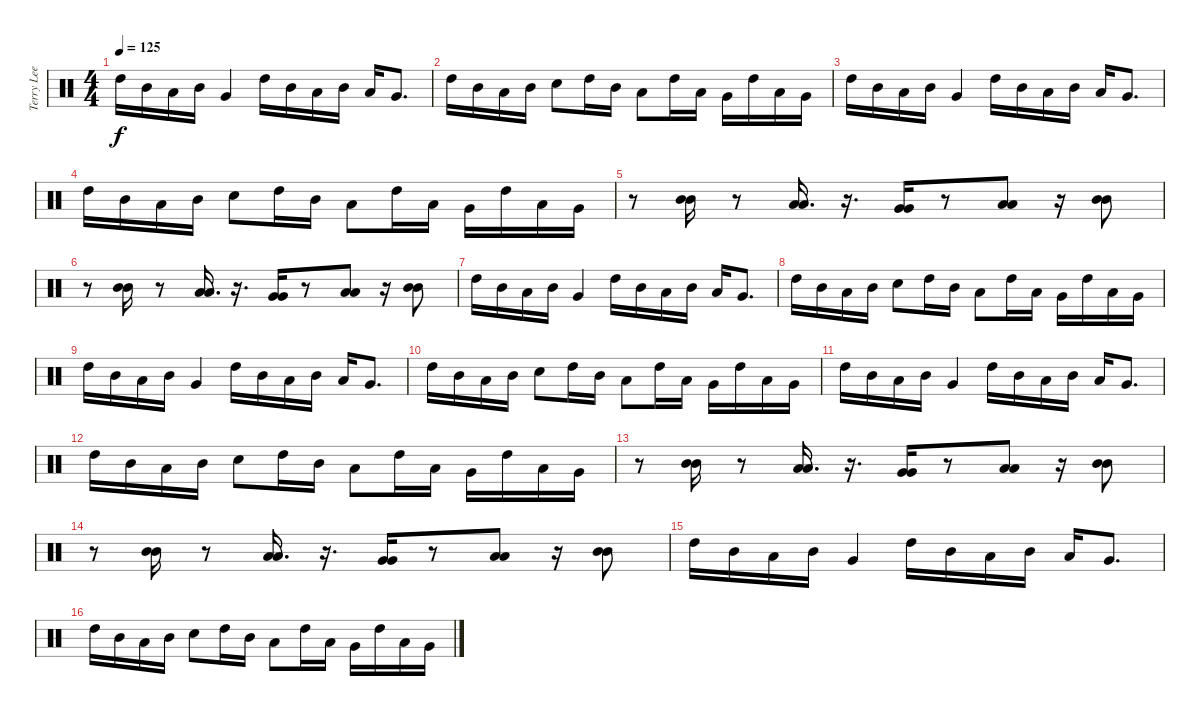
\track ("Terry Lee Miall" "Terry Lee ") {instrument percussion}
\staff {score}
\articulation defaults
\ts (4 4)
\tempo 125
\clef neutral
\ks c "High Tom (hit)".16{dy f} "Mid Tom (hit)".16 "Low Tom (hit)".16 "Mid Tom (hit)".16 "Very Low Tom (hit)".4 "High Tom (hit)".16 "Mid Tom (hit)".16 "Low Tom (hit)".16 "Mid Tom (hit)".16 "Low Tom (hit)".16 "Very Low Tom (hit)".8{d}
|
"High Tom (hit)".16 "Mid Tom (hit)".16 "Low Tom (hit)".16 "Mid Tom (hit)".16 "Electric Snare (hit)".8 "High Tom (hit)".16 "Mid Tom (hit)".16 "Low Tom (hit)".8 "High Tom (hit)".16 "Low Tom (hit)".16 "Very Low Tom (hit)".16 "High Tom (hit)".16 "Low Tom (hit)".16 "Very Low Tom (hit)".16 |
"High Tom (hit)".16 "Mid Tom (hit)".16 "Low Tom (hit)".16 "Mid Tom (hit)".16 "Very Low Tom (hit)".4 "High Tom (hit)".16 "Mid Tom (hit)".16 "Low Tom (hit)".16 "Mid Tom (hit)".16 "Low Tom (hit)".16 "Very Low Tom (hit)".8{d} |
"High Tom (hit)".16 "Mid Tom (hit)".16 "Low Tom (hit)".16 "Mid Tom (hit)".16 "Electric Snare (hit)".8 "High Tom (hit)".16 "Mid Tom (hit)".16 "Low Tom (hit)".8 "High Tom (hit)".16 "Low Tom (hit)".16 "Very Low Tom (hit)".16 "High Tom (hit)".16 "Low Tom (hit)".16 "Very Low Tom (hit)".16 |
r.8 ("Mid Tom (hit)" "Mid Tom (hit)").16 r.8 ("Low Tom (hit)" "Low Tom (hit)").16{d} r.16{d} ("Very Low Tom (hit)" "Very Low Tom (hit)").16 r.8 ("Low Tom (hit)" "Low Tom (hit)").8 r.16 ("Mid Tom (hit)" "Mid Tom (hit)").8 |
r.8 ("Mid Tom (hit)" "Mid Tom (hit)").16 r.8 ("Low Tom (hit)" "Low Tom (hit)").16{d} r.16{d} ("Very Low Tom (hit)" "Very Low Tom (hit)").16 r.8 ("Low Tom (hit)" "Low Tom (hit)").8 r.16 ("Mid Tom (hit)" "Mid Tom (hit)").8 |
"High Tom (hit)".16 "Mid Tom (hit)".16 "Low Tom (hit)".16 "Mid Tom (hit)".16 "Very Low Tom (hit)".4 "High Tom (hit)".16 "Mid Tom (hit)".16 "Low Tom (hit)".16 "Mid Tom (hit)".16 "Low Tom (hit)".16 "Very Low Tom (hit)".8{d} |
"High Tom (hit)".16 "Mid Tom (hit)".16 "Low Tom (hit)".16 "Mid Tom (hit)".16 "Electric Snare (hit)".8 "High Tom (hit)".16 "Mid Tom (hit)".16 "Low Tom (hit)".8 "High Tom (hit)".16 "Low Tom (hit)".16 "Very Low Tom (hit)".16 "High Tom (hit)".16 "Low Tom (hit)".16 "Very Low Tom (hit)".16 |
"High Tom (hit)".16 "Mid Tom (hit)".16 "Low Tom (hit)".16 "Mid Tom (hit)".16 "Very Low Tom (hit)".4 "High Tom (hit)".16 "Mid Tom (hit)".16 "Low Tom (hit)".16 "Mid Tom (hit)".16 "Low Tom (hit)".16 "Very Low Tom (hit)".8{d} |
"High Tom (hit)".16 "Mid Tom (hit)".16 "Low Tom (hit)".16 "Mid Tom (hit)".16 "Electric Snare (hit)".8 "High Tom (hit)".16 "Mid Tom (hit)".16 "Low Tom (hit)".8 "High Tom (hit)".16 "Low Tom (hit)".16 "Very Low Tom (hit)".16 "High Tom (hit)".16 "Low Tom (hit)".16 "Very Low Tom (hit)".16 |
"High Tom (hit)".16 "Mid Tom (hit)".16 "Low Tom (hit)".16 "Mid Tom (hit)".16 "Very Low Tom (hit)".4 "High Tom (hit)".16 "Mid Tom (hit)".16 "Low Tom (hit)".16 "Mid Tom (hit)".16 "Low Tom (hit)".16 "Very Low Tom (hit)".8{d} |
"High Tom (hit)".16 "Mid Tom (hit)".16 "Low Tom (hit)".16 "Mid Tom (hit)".16 "Electric Snare (hit)".8 "High Tom (hit)".16 "Mid Tom (hit)".16 "Low Tom (hit)".8 "High Tom (hit)".16 "Low Tom (hit)".16 "Very Low Tom (hit)".16 "High Tom (hit)".16 "Low Tom (hit)".16 "Very Low Tom (hit)".16 |
r.8 ("Mid Tom (hit)" "Mid Tom (hit)").16 r.8 ("Low Tom (hit)" "Low Tom (hit)").16{d} r.16{d} ("Very Low Tom (hit)" "Very Low Tom (hit)").16 r.8 ("Low Tom (hit)" "Low Tom (hit)").8 r.16 ("Mid Tom (hit)" "Mid Tom (hit)").8 |
r.8 ("Mid Tom (hit)" "Mid Tom (hit)").16 r.8 ("Low Tom (hit)" "Low Tom (hit)").16{d} r.16{d} ("Very Low Tom (hit)" "Very Low Tom (hit)").16 r.8 ("Low Tom (hit)" "Low Tom (hit)").8 r.16 ("Mid Tom (hit)" "Mid Tom (hit)").8 |
"High Tom (hit)".16 "Mid Tom (hit)".16 "Low Tom (hit)".16 "Mid Tom (hit)".16 "Very Low Tom (hit)".4 "High Tom (hit)".16 "Mid Tom (hit)".16 "Low Tom (hit)".16 "Mid Tom (hit)".16 "Low Tom (hit)".16 "Very Low Tom (hit)".8{d} |
"High Tom (hit)".16 "Mid Tom (hit)".16 "Low Tom (hit)".16 "Mid Tom (hit)".16 "Electric Snare (hit)".8 "High Tom (hit)".16 "Mid Tom (hit)".16 "Low Tom (hit)".8 "High Tom (hit)".16 "Low Tom (hit)".16 "Very Low Tom (hit)".16 "High Tom (hit)".16 "Low Tom (hit)".16 "Very Low Tom (hit)".16
